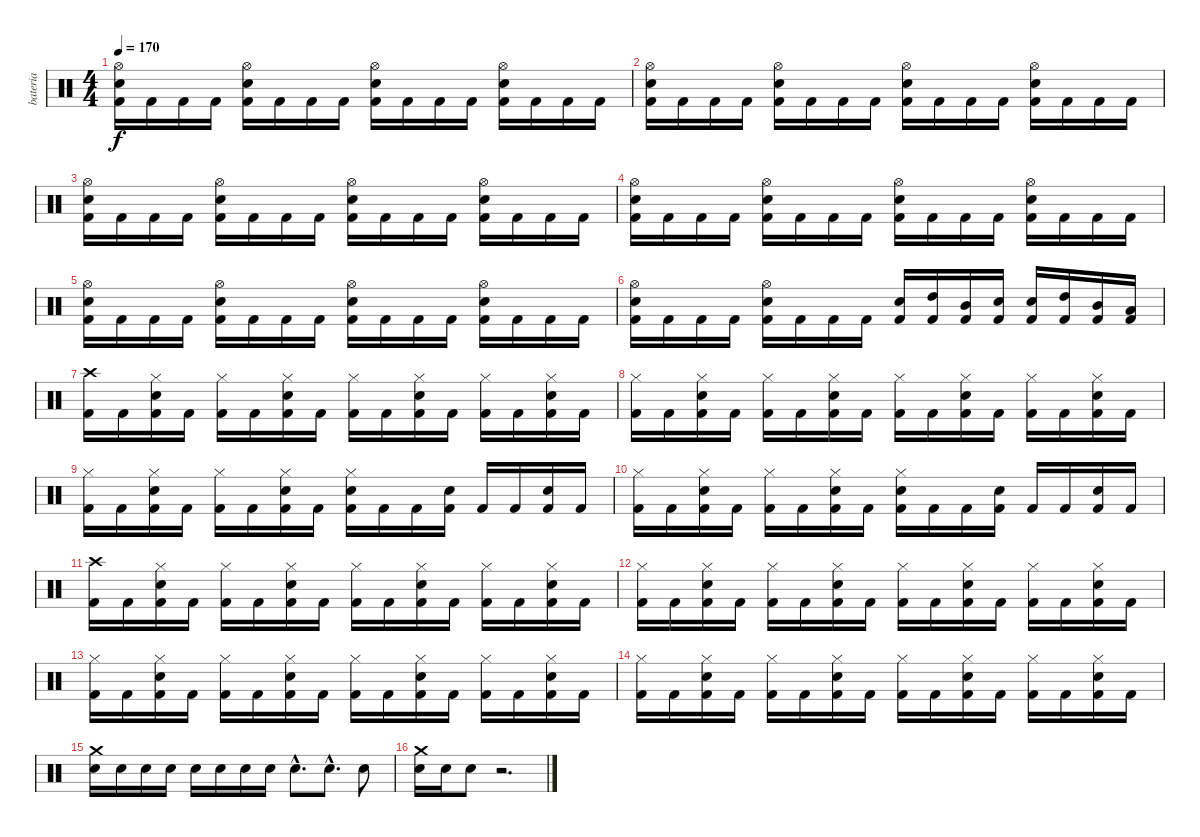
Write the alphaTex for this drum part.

\track ("bateria" "bateria") {instrument percussion}
\staff {score}
\articulation defaults
\ts (4 4)
\tempo 170
\clef neutral
\ks c
("Hi-Hat (open)" "Snare (hit) 2" "Kick (hit) 2").16{dy f} "Kick (hit) 2".16 "Kick (hit) 2".16 "Kick (hit) 2".16 ("Hi-Hat (open)" "Snare (hit) 2" "Kick (hit) 2").16 "Kick (hit) 2".16 "Kick (hit) 2".16 "Kick (hit) 2".16 ("Hi-Hat (open)" "Snare (hit) 2" "Kick (hit) 2").16 "Kick (hit) 2".16 "Kick (hit) 2".16 "Kick (hit) 2".16 ("Hi-Hat (open)" "Snare (hit) 2" "Kick (hit) 2").16 "Kick (hit) 2".16 "Kick (hit) 2".16 "Kick (hit) 2".16 |
("Hi-Hat (open)" "Snare (hit) 2" "Kick (hit) 2").16 "Kick (hit) 2".16 "Kick (hit) 2".16 "Kick (hit) 2".16 ("Hi-Hat (open)" "Snare (hit) 2" "Kick (hit) 2").16 "Kick (hit) 2".16 "Kick (hit) 2".16 "Kick (hit) 2".16 ("Hi-Hat (open)" "Snare (hit) 2" "Kick (hit) 2").16 "Kick (hit) 2".16 "Kick (hit) 2".16 "Kick (hit) 2".16 ("Hi-Hat (open)" "Snare (hit) 2" "Kick (hit) 2").16 "Kick (hit) 2".16 "Kick (hit) 2".16 "Kick (hit) 2".16 |
("Hi-Hat (open)" "Snare (hit) 2" "Kick (hit) 2").16 "Kick (hit) 2".16 "Kick (hit) 2".16 "Kick (hit) 2".16 ("Hi-Hat (open)" "Snare (hit) 2" "Kick (hit) 2").16 "Kick (hit) 2".16 "Kick (hit) 2".16 "Kick (hit) 2".16 ("Hi-Hat (open)" "Snare (hit) 2" "Kick (hit) 2").16 "Kick (hit) 2".16 "Kick (hit) 2".16 "Kick (hit) 2".16 ("Hi-Hat (open)" "Snare (hit) 2" "Kick (hit) 2").16 "Kick (hit) 2".16 "Kick (hit) 2".16 "Kick (hit) 2".16 |
("Hi-Hat (open)" "Snare (hit) 2" "Kick (hit) 2").16 "Kick (hit) 2".16 "Kick (hit) 2".16 "Kick (hit) 2".16 ("Hi-Hat (open)" "Snare (hit) 2" "Kick (hit) 2").16 "Kick (hit) 2".16 "Kick (hit) 2".16 "Kick (hit) 2".16 ("Hi-Hat (open)" "Snare (hit) 2" "Kick (hit) 2").16 "Kick (hit) 2".16 "Kick (hit) 2".16 "Kick (hit) 2".16 ("Hi-Hat (open)" "Snare (hit) 2" "Kick (hit) 2").16 "Kick (hit) 2".16 "Kick (hit) 2".16 "Kick (hit) 2".16 |
("Hi-Hat (open)" "Snare (hit) 2" "Kick (hit) 2").16 "Kick (hit) 2".16 "Kick (hit) 2".16 "Kick (hit) 2".16 ("Hi-Hat (open)" "Snare (hit) 2" "Kick (hit) 2").16 "Kick (hit) 2".16 "Kick (hit) 2".16 "Kick (hit) 2".16 ("Hi-Hat (open)" "Snare (hit) 2" "Kick (hit) 2").16 "Kick (hit) 2".16 "Kick (hit) 2".16 "Kick (hit) 2".16 ("Hi-Hat (open)" "Snare (hit) 2" "Kick (hit) 2").16 "Kick (hit) 2".16 "Kick (hit) 2".16 "Kick (hit) 2".16 |
("Hi-Hat (open)" "Snare (hit) 2" "Kick (hit) 2").16 "Kick (hit) 2".16 "Kick (hit) 2".16 "Kick (hit) 2".16 ("Hi-Hat (open)" "Snare (hit) 2" "Kick (hit) 2").16 "Kick (hit) 2".16 "Kick (hit) 2".16 "Kick (hit) 2".16 ("Snare (hit) 2" "Kick (hit) 2").16 ("High Tom (hit)" "Kick (hit) 2").16 ("Mid Tom (hit)" "Kick (hit) 2").16 ("Snare (hit) 2" "Kick (hit) 2").16 ("Snare (hit) 2" "Kick (hit) 2").16 ("High Tom (hit)" "Kick (hit) 2").16 ("Mid Tom (hit)" "Kick (hit) 2").16 ("Low Tom (hit)" "Kick (hit) 2").16 |
("Crash high (hit)" "Kick (hit) 2").16 "Kick (hit) 2".16 ("Hi-Hat (closed)" "Snare (hit) 2" "Kick (hit) 2").16 "Kick (hit) 2".16 ("Hi-Hat (closed)" "Kick (hit) 2").16 "Kick (hit) 2".16 ("Hi-Hat (closed)" "Snare (hit) 2" "Kick (hit) 2").16 "Kick (hit) 2".16 ("Hi-Hat (closed)" "Kick (hit) 2").16 "Kick (hit) 2".16 ("Hi-Hat (closed)" "Snare (hit) 2" "Kick (hit) 2").16 "Kick (hit) 2".16 ("Hi-Hat (closed)" "Kick (hit) 2").16 "Kick (hit) 2".16 ("Hi-Hat (closed)" "Snare (hit) 2" "Kick (hit) 2").16 "Kick (hit) 2".16 |
("Hi-Hat (closed)" "Kick (hit) 2").16 "Kick (hit) 2".16 ("Hi-Hat (closed)" "Snare (hit) 2" "Kick (hit) 2").16 "Kick (hit) 2".16 ("Hi-Hat (closed)" "Kick (hit) 2").16 "Kick (hit) 2".16 ("Hi-Hat (closed)" "Snare (hit) 2" "Kick (hit) 2").16 "Kick (hit) 2".16 ("Hi-Hat (closed)" "Kick (hit) 2").16 "Kick (hit) 2".16 ("Hi-Hat (closed)" "Snare (hit) 2" "Kick (hit) 2").16 "Kick (hit) 2".16 ("Hi-Hat (closed)" "Kick (hit) 2").16 "Kick (hit) 2".16 ("Hi-Hat (closed)" "Snare (hit) 2" "Kick (hit) 2").16 "Kick (hit) 2".16 |
("Hi-Hat (closed)" "Kick (hit) 2").16 "Kick (hit) 2".16 ("Hi-Hat (closed)" "Snare (hit) 2" "Kick (hit) 2").16 "Kick (hit) 2".16 ("Hi-Hat (closed)" "Kick (hit) 2").16 "Kick (hit) 2".16 ("Hi-Hat (closed)" "Snare (hit) 2" "Kick (hit) 2").16 "Kick (hit) 2".16 ("Hi-Hat (closed)" "Snare (hit) 2" "Kick (hit) 2").16 "Kick (hit) 2".16 "Kick (hit) 2".16 ("Snare (hit) 2" "Kick (hit) 2").16 "Kick (hit) 2".16 "Kick (hit) 2".16 ("Snare (hit) 2" "Kick (hit) 2").16 "Kick (hit) 2".16 |
("Hi-Hat (closed)" "Kick (hit) 2").16 "Kick (hit) 2".16 ("Hi-Hat (closed)" "Snare (hit) 2" "Kick (hit) 2").16 "Kick (hit) 2".16 ("Hi-Hat (closed)" "Kick (hit) 2").16 "Kick (hit) 2".16 ("Hi-Hat (closed)" "Snare (hit) 2" "Kick (hit) 2").16 "Kick (hit) 2".16 ("Hi-Hat (closed)" "Snare (hit) 2" "Kick (hit) 2").16 "Kick (hit) 2".16 "Kick (hit) 2".16 ("Snare (hit) 2" "Kick (hit) 2").16 "Kick (hit) 2".16 "Kick (hit) 2".16 ("Snare (hit) 2" "Kick (hit) 2").16 "Kick (hit) 2".16 |
("Crash high (hit)" "Kick (hit) 2").16 "Kick (hit) 2".16 ("Hi-Hat (closed)" "Snare (hit) 2" "Kick (hit) 2").16 "Kick (hit) 2".16 ("Hi-Hat (closed)" "Kick (hit) 2").16 "Kick (hit) 2".16 ("Hi-Hat (closed)" "Snare (hit) 2" "Kick (hit) 2").16 "Kick (hit) 2".16 ("Hi-Hat (closed)" "Kick (hit) 2").16 "Kick (hit) 2".16 ("Hi-Hat (closed)" "Snare (hit) 2" "Kick (hit) 2").16 "Kick (hit) 2".16 ("Hi-Hat (closed)" "Kick (hit) 2").16 "Kick (hit) 2".16 ("Hi-Hat (closed)" "Snare (hit) 2" "Kick (hit) 2").16 "Kick (hit) 2".16 |
("Hi-Hat (closed)" "Kick (hit) 2").16 "Kick (hit) 2".16 ("Hi-Hat (closed)" "Snare (hit) 2" "Kick (hit) 2").16 "Kick (hit) 2".16 ("Hi-Hat (closed)" "Kick (hit) 2").16 "Kick (hit) 2".16 ("Hi-Hat (closed)" "Snare (hit) 2" "Kick (hit) 2").16 "Kick (hit) 2".16 ("Hi-Hat (closed)" "Kick (hit) 2").16 "Kick (hit) 2".16 ("Hi-Hat (closed)" "Snare (hit) 2" "Kick (hit) 2").16 "Kick (hit) 2".16 ("Hi-Hat (closed)" "Kick (hit) 2").16 "Kick (hit) 2".16 ("Hi-Hat (closed)" "Snare (hit) 2" "Kick (hit) 2").16 "Kick (hit) 2".16 |
("Hi-Hat (closed)" "Kick (hit) 2").16 "Kick (hit) 2".16 ("Hi-Hat (closed)" "Snare (hit) 2" "Kick (hit) 2").16 "Kick (hit) 2".16 ("Hi-Hat (closed)" "Kick (hit) 2").16 "Kick (hit) 2".16 ("Hi-Hat (closed)" "Snare (hit) 2" "Kick (hit) 2").16 "Kick (hit) 2".16 ("Hi-Hat (closed)" "Kick (hit) 2").16 "Kick (hit) 2".16 ("Hi-Hat (closed)" "Snare (hit) 2" "Kick (hit) 2").16 "Kick (hit) 2".16 ("Hi-Hat (closed)" "Kick (hit) 2").16 "Kick (hit) 2".16 ("Hi-Hat (closed)" "Snare (hit) 2" "Kick (hit) 2").16 "Kick (hit) 2".16 |
("Hi-Hat (closed)" "Kick (hit) 2").16 "Kick (hit) 2".16 ("Hi-Hat (closed)" "Snare (hit) 2" "Kick (hit) 2").16 "Kick (hit) 2".16 ("Hi-Hat (closed)" "Kick (hit) 2").16 "Kick (hit) 2".16 ("Hi-Hat (closed)" "Snare (hit) 2" "Kick (hit) 2").16 "Kick (hit) 2".16 ("Hi-Hat (closed)" "Kick (hit) 2").16 "Kick (hit) 2".16 ("Hi-Hat (closed)" "Snare (hit) 2" "Kick (hit) 2").16 "Kick (hit) 2".16 ("Hi-Hat (closed)" "Kick (hit) 2").16 "Kick (hit) 2".16 ("Hi-Hat (closed)" "Snare (hit) 2" "Kick (hit) 2").16 "Kick (hit) 2".16 |
("Crash medium (hit)" "Snare (hit) 2").16 "Snare (hit) 2".16 "Snare (hit) 2".16 "Snare (hit) 2".16 "Snare (hit) 2".16 "Snare (hit) 2".16 "Snare (hit) 2".16 "Snare (hit) 2".16 "Snare (hit) 2"{hac}.8{d} "Snare (hit) 2"{hac}.8{d} "Snare (hit) 2".8 |
("Crash medium (hit)" "Snare (hit) 2").16 "Snare (hit) 2".16 "Snare (hit) 2".8 r.2{d}
